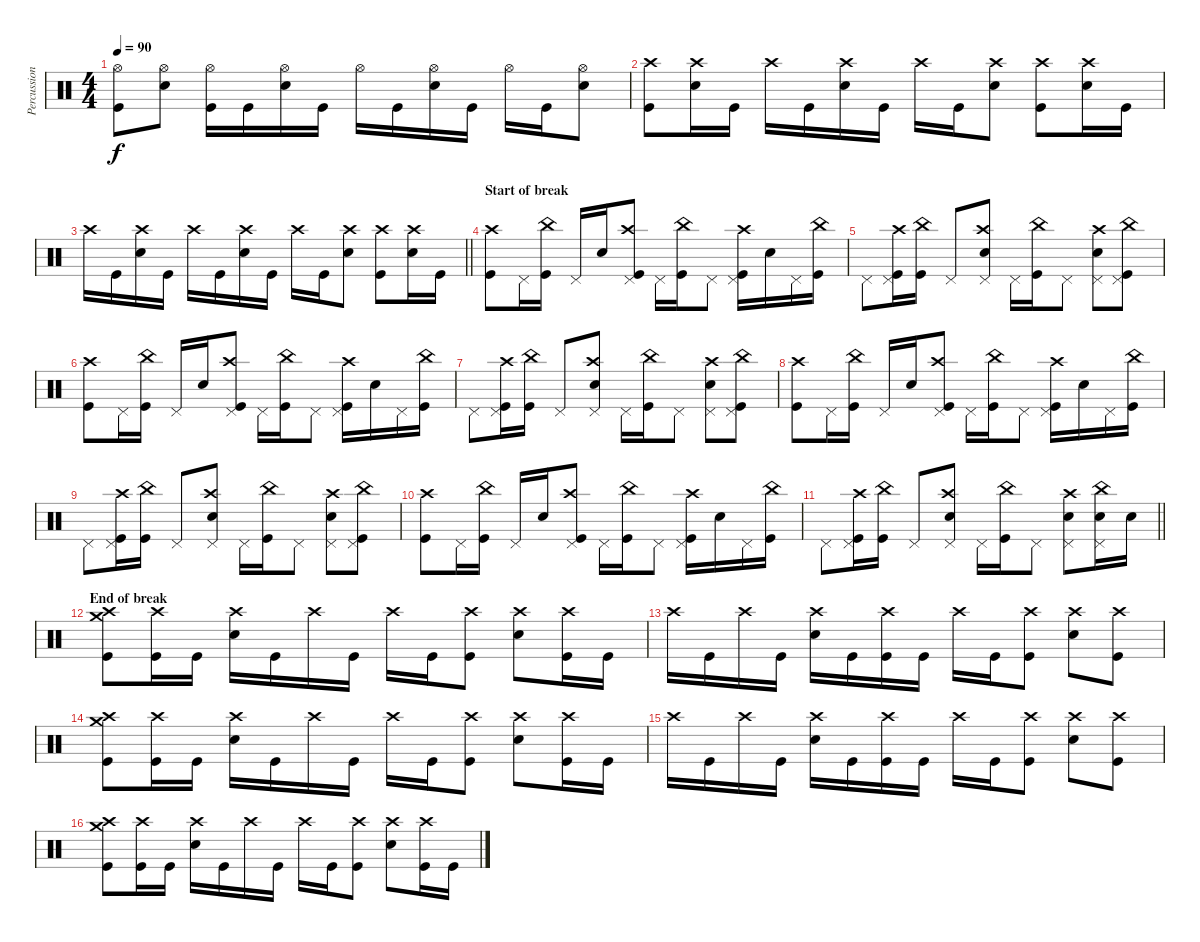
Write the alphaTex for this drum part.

\track ("Percussion" "Percussion") {instrument percussion}
\staff {score}
\articulation defaults
\ts (4 4)
\tempo 90
\clef neutral
\ks c
("Kick (hit)" "Hi-Hat (open)").8{dy f} ("Snare (hit) 2" "Hi-Hat (open)").8 ("Kick (hit)" "Hi-Hat (open)").16 "Kick (hit)".16 ("Snare (hit) 2" "Hi-Hat (open)").16 "Kick (hit)".16 "Hi-Hat (open)".16 "Kick (hit)".16 ("Snare (hit) 2" "Hi-Hat (open)").16 "Kick (hit)".16 "Hi-Hat (open)".16 "Kick (hit)".16 ("Snare (hit) 2" "Hi-Hat (open)").8 |
("Kick (hit)" "Crash high (hit)").8 ("Snare (hit) 2" "Crash high (hit)").16 "Kick (hit)".16 "Crash high (hit)".16 "Kick (hit)".16 ("Snare (hit) 2" "Crash high (hit)").16 "Kick (hit)".16 "Crash high (hit)".16 "Kick (hit)".16 ("Snare (hit) 2" "Crash high (hit)").8 ("Kick (hit)" "Crash high (hit)").8 ("Snare (hit) 2" "Crash high (hit)").16 "Kick (hit)".16 |
\barLineRight lightlight "Crash high (hit)".16 "Kick (hit)".16
("Snare (hit) 2" "Crash high (hit)").16 "Kick (hit)".16 "Crash high (hit)".16 "Kick (hit)".16 ("Snare (hit) 2" "Crash high (hit)").16 "Kick (hit)".16 "Crash high (hit)".16 "Kick (hit)".16 ("Snare (hit) 2" "Crash high (hit)").8 ("Kick (hit)" "Crash high (hit)").8 ("Snare (hit) 2" "Crash high (hit)").16 "Kick (hit)".16 |
\section ("" "Start of break")
("Kick (hit)" "Crash high (hit)").8 "Pedal Hi-Hat (hit)".16 ("Kick (hit)" "China (hit)").16 "Pedal Hi-Hat (hit)".16 "Snare (hit) 2".16 ("Kick (hit)" "Crash high (hit)" "Pedal Hi-Hat (hit)").8 "Pedal Hi-Hat (hit)".16 ("Kick (hit)" "China (hit)").16 "Pedal Hi-Hat (hit)".8 ("Kick (hit)" "Crash high (hit)" "Pedal Hi-Hat (hit)").16 "Snare (hit) 2".16 "Pedal Hi-Hat (hit)".16 ("Kick (hit)" "China (hit)").16 |
"Pedal Hi-Hat (hit)".8 ("Kick (hit)" "Crash high (hit)" "Pedal Hi-Hat (hit)").16 ("Kick (hit)" "China (hit)").16 "Pedal Hi-Hat (hit)".8 ("Snare (hit) 2" "Crash high (hit)" "Pedal Hi-Hat (hit)").8 "Pedal Hi-Hat (hit)".16 ("Kick (hit)" "China (hit)").16 "Pedal Hi-Hat (hit)".8 ("Snare (hit) 2" "Crash high (hit)" "Pedal Hi-Hat (hit)").8 ("Kick (hit)" "China (hit)" "Pedal Hi-Hat (hit)").8 |
("Kick (hit)" "Crash high (hit)").8 "Pedal Hi-Hat (hit)".16 ("Kick (hit)" "China (hit)").16 "Pedal Hi-Hat (hit)".16 "Snare (hit) 2".16 ("Kick (hit)" "Crash high (hit)" "Pedal Hi-Hat (hit)").8 "Pedal Hi-Hat (hit)".16 ("Kick (hit)" "China (hit)").16 "Pedal Hi-Hat (hit)".8 ("Kick (hit)" "Crash high (hit)" "Pedal Hi-Hat (hit)").16 "Snare (hit) 2".16 "Pedal Hi-Hat (hit)".16 ("Kick (hit)" "China (hit)").16 |
"Pedal Hi-Hat (hit)".8 ("Kick (hit)" "Crash high (hit)" "Pedal Hi-Hat (hit)").16 ("Kick (hit)" "China (hit)").16 "Pedal Hi-Hat (hit)".8 ("Snare (hit) 2" "Crash high (hit)" "Pedal Hi-Hat (hit)").8 "Pedal Hi-Hat (hit)".16 ("Kick (hit)" "China (hit)").16 "Pedal Hi-Hat (hit)".8 ("Snare (hit) 2" "Crash high (hit)" "Pedal Hi-Hat (hit)").8 ("Kick (hit)" "China (hit)" "Pedal Hi-Hat (hit)").8 |
("Kick (hit)" "Crash high (hit)").8 "Pedal Hi-Hat (hit)".16 ("Kick (hit)" "China (hit)").16 "Pedal Hi-Hat (hit)".16 "Snare (hit) 2".16 ("Kick (hit)" "Crash high (hit)" "Pedal Hi-Hat (hit)").8 "Pedal Hi-Hat (hit)".16 ("Kick (hit)" "China (hit)").16 "Pedal Hi-Hat (hit)".8 ("Kick (hit)" "Crash high (hit)" "Pedal Hi-Hat (hit)").16 "Snare (hit) 2".16 "Pedal Hi-Hat (hit)".16 ("Kick (hit)" "China (hit)").16 |
"Pedal Hi-Hat (hit)".8 ("Kick (hit)" "Crash high (hit)" "Pedal Hi-Hat (hit)").16 ("Kick (hit)" "China (hit)").16 "Pedal Hi-Hat (hit)".8 ("Snare (hit) 2" "Crash high (hit)" "Pedal Hi-Hat (hit)").8 "Pedal Hi-Hat (hit)".16 ("Kick (hit)" "China (hit)").16 "Pedal Hi-Hat (hit)".8 ("Snare (hit) 2" "Crash high (hit)" "Pedal Hi-Hat (hit)").8 ("Kick (hit)" "China (hit)" "Pedal Hi-Hat (hit)").8 |
("Kick (hit)" "Crash high (hit)").8 "Pedal Hi-Hat (hit)".16 ("Kick (hit)" "China (hit)").16 "Pedal Hi-Hat (hit)".16 "Snare (hit) 2".16 ("Kick (hit)" "Crash high (hit)" "Pedal Hi-Hat (hit)").8 "Pedal Hi-Hat (hit)".16 ("Kick (hit)" "China (hit)").16 "Pedal Hi-Hat (hit)".8 ("Kick (hit)" "Crash high (hit)" "Pedal Hi-Hat (hit)").16 "Snare (hit) 2".16 "Pedal Hi-Hat (hit)".16 ("Kick (hit)" "China (hit)").16 |
\barLineRight lightlight "Pedal Hi-Hat (hit)".8
("Kick (hit)" "Crash high (hit)" "Pedal Hi-Hat (hit)").16 ("Kick (hit)" "China (hit)").16 "Pedal Hi-Hat (hit)".8 ("Snare (hit) 2" "Crash high (hit)" "Pedal Hi-Hat (hit)").8 "Pedal Hi-Hat (hit)".16 ("Kick (hit)" "China (hit)").16 "Pedal Hi-Hat (hit)".8 ("Snare (hit) 2" "Crash high (hit)" "Pedal Hi-Hat (hit)").8 ("Snare (hit) 2" "China (hit)" "Pedal Hi-Hat (hit)").16 "Snare (hit) 2".16 |
\section ("" "End of break")
("Kick (hit)" "Crash high (hit)" "Crash medium (hit)").8 ("Kick (hit)" "Crash high (hit)").16 "Kick (hit)".16 ("Snare (hit) 2" "Crash high (hit)").16 "Kick (hit)".16 "Crash high (hit)".16 "Kick (hit)".16 "Crash high (hit)".16 "Kick (hit)".16 ("Kick (hit)" "Crash high (hit)").8 ("Snare (hit) 2" "Crash high (hit)").8 ("Kick (hit)" "Crash high (hit)").16 "Kick (hit)".16 |
"Crash high (hit)".16 "Kick (hit)".16 "Crash high (hit)".16 "Kick (hit)".16 ("Snare (hit) 2" "Crash high (hit)").16 "Kick (hit)".16 ("Kick (hit)" "Crash high (hit)").16 "Kick (hit)".16 "Crash high (hit)".16 "Kick (hit)".16 ("Kick (hit)" "Crash high (hit)").8 ("Snare (hit) 2" "Crash high (hit)").8 ("Kick (hit)" "Crash high (hit)").8 |
("Kick (hit)" "Crash high (hit)" "Crash medium (hit)").8 ("Kick (hit)" "Crash high (hit)").16 "Kick (hit)".16 ("Snare (hit) 2" "Crash high (hit)").16 "Kick (hit)".16 "Crash high (hit)".16 "Kick (hit)".16 "Crash high (hit)".16 "Kick (hit)".16 ("Kick (hit)" "Crash high (hit)").8 ("Snare (hit) 2" "Crash high (hit)").8 ("Kick (hit)" "Crash high (hit)").16 "Kick (hit)".16 |
"Crash high (hit)".16 "Kick (hit)".16 "Crash high (hit)".16 "Kick (hit)".16 ("Snare (hit) 2" "Crash high (hit)").16 "Kick (hit)".16 ("Kick (hit)" "Crash high (hit)").16 "Kick (hit)".16 "Crash high (hit)".16 "Kick (hit)".16 ("Kick (hit)" "Crash high (hit)").8 ("Snare (hit) 2" "Crash high (hit)").8 ("Kick (hit)" "Crash high (hit)").8 |
("Kick (hit)" "Crash high (hit)" "Crash medium (hit)").8 ("Kick (hit)" "Crash high (hit)").16 "Kick (hit)".16 ("Snare (hit) 2" "Crash high (hit)").16 "Kick (hit)".16 "Crash high (hit)".16 "Kick (hit)".16 "Crash high (hit)".16 "Kick (hit)".16 ("Kick (hit)" "Crash high (hit)").8 ("Snare (hit) 2" "Crash high (hit)").8 ("Kick (hit)" "Crash high (hit)").16 "Kick (hit)".16
